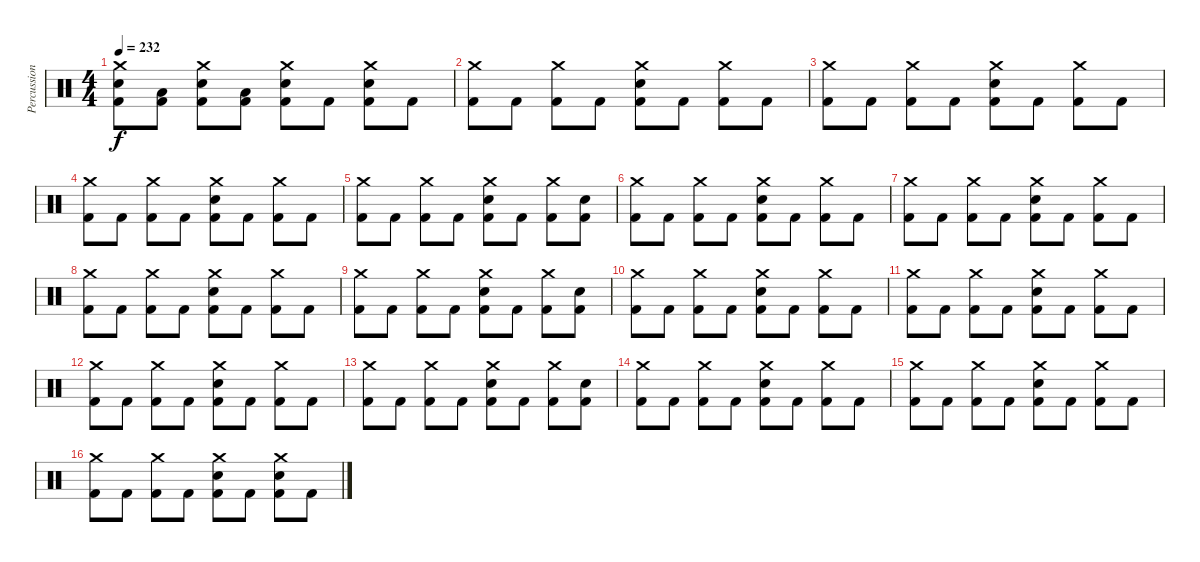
\track ("Percussions" "Percussion") {instrument percussion}
\staff {score}
\articulation defaults
\ts (4 4)
\tempo 232
\clef neutral
\ks c
("Crash medium (hit)" "Electric Snare (hit)" "Kick (hit) 2").8{dy f} ("Low Tom (hit)" "Kick (hit) 2").8 ("Crash medium (hit)" "Electric Snare (hit)" "Kick (hit) 2").8 ("Low Floor Tom (hit)" "Kick (hit) 2").8 ("Crash medium (hit)" "Electric Snare (hit)" "Kick (hit) 2").8 "Kick (hit) 2".8 ("Crash medium (hit)" "Electric Snare (hit)" "Kick (hit) 2").8 "Kick (hit) 2".8 |
("Crash medium (hit)" "Kick (hit) 2").8 "Kick (hit) 2".8 ("Crash medium (hit)" "Kick (hit) 2").8 "Kick (hit) 2".8 ("Crash medium (hit)" "Electric Snare (hit)" "Kick (hit) 2").8 "Kick (hit) 2".8 ("Crash medium (hit)" "Kick (hit) 2").8 "Kick (hit) 2".8 |
("Crash medium (hit)" "Kick (hit) 2").8 "Kick (hit) 2".8 ("Crash medium (hit)" "Kick (hit) 2").8 "Kick (hit) 2".8 ("Crash medium (hit)" "Electric Snare (hit)" "Kick (hit) 2").8 "Kick (hit) 2".8 ("Crash medium (hit)" "Kick (hit) 2").8 "Kick (hit) 2".8 |
("Crash medium (hit)" "Kick (hit) 2").8 "Kick (hit) 2".8 ("Crash medium (hit)" "Kick (hit) 2").8 "Kick (hit) 2".8 ("Crash medium (hit)" "Electric Snare (hit)" "Kick (hit) 2").8 "Kick (hit) 2".8 ("Crash medium (hit)" "Kick (hit) 2").8 "Kick (hit) 2".8 |
("Crash medium (hit)" "Kick (hit) 2").8 "Kick (hit) 2".8 ("Crash medium (hit)" "Kick (hit) 2").8 "Kick (hit) 2".8 ("Crash medium (hit)" "Electric Snare (hit)" "Kick (hit) 2").8 "Kick (hit) 2".8 ("Crash medium (hit)" "Kick (hit) 2").8 ("Electric Snare (hit)" "Kick (hit) 2").8 |
("Crash medium (hit)" "Kick (hit) 2").8 "Kick (hit) 2".8 ("Crash medium (hit)" "Kick (hit) 2").8 "Kick (hit) 2".8 ("Crash medium (hit)" "Electric Snare (hit)" "Kick (hit) 2").8 "Kick (hit) 2".8 ("Crash medium (hit)" "Kick (hit) 2").8 "Kick (hit) 2".8 |
("Crash medium (hit)" "Kick (hit) 2").8 "Kick (hit) 2".8 ("Crash medium (hit)" "Kick (hit) 2").8 "Kick (hit) 2".8 ("Crash medium (hit)" "Electric Snare (hit)" "Kick (hit) 2").8 "Kick (hit) 2".8 ("Crash medium (hit)" "Kick (hit) 2").8 "Kick (hit) 2".8 |
("Crash medium (hit)" "Kick (hit) 2").8 "Kick (hit) 2".8 ("Crash medium (hit)" "Kick (hit) 2").8 "Kick (hit) 2".8 ("Crash medium (hit)" "Electric Snare (hit)" "Kick (hit) 2").8 "Kick (hit) 2".8 ("Crash medium (hit)" "Kick (hit) 2").8 "Kick (hit) 2".8 |
("Crash medium (hit)" "Kick (hit) 2").8 "Kick (hit) 2".8 ("Crash medium (hit)" "Kick (hit) 2").8 "Kick (hit) 2".8 ("Crash medium (hit)" "Electric Snare (hit)" "Kick (hit) 2").8 "Kick (hit) 2".8 ("Crash medium (hit)" "Kick (hit) 2").8 ("Electric Snare (hit)" "Kick (hit) 2").8 |
("Crash medium (hit)" "Kick (hit) 2").8 "Kick (hit) 2".8 ("Crash medium (hit)" "Kick (hit) 2").8 "Kick (hit) 2".8 ("Crash medium (hit)" "Electric Snare (hit)" "Kick (hit) 2").8 "Kick (hit) 2".8 ("Crash medium (hit)" "Kick (hit) 2").8 "Kick (hit) 2".8 |
("Crash medium (hit)" "Kick (hit) 2").8 "Kick (hit) 2".8 ("Crash medium (hit)" "Kick (hit) 2").8 "Kick (hit) 2".8 ("Crash medium (hit)" "Electric Snare (hit)" "Kick (hit) 2").8 "Kick (hit) 2".8 ("Crash medium (hit)" "Kick (hit) 2").8 "Kick (hit) 2".8 |
("Crash medium (hit)" "Kick (hit) 2").8 "Kick (hit) 2".8 ("Crash medium (hit)" "Kick (hit) 2").8 "Kick (hit) 2".8 ("Crash medium (hit)" "Electric Snare (hit)" "Kick (hit) 2").8 "Kick (hit) 2".8 ("Crash medium (hit)" "Kick (hit) 2").8 "Kick (hit) 2".8 |
("Crash medium (hit)" "Kick (hit) 2").8 "Kick (hit) 2".8 ("Crash medium (hit)" "Kick (hit) 2").8 "Kick (hit) 2".8 ("Crash medium (hit)" "Electric Snare (hit)" "Kick (hit) 2").8 "Kick (hit) 2".8 ("Crash medium (hit)" "Kick (hit) 2").8 ("Electric Snare (hit)" "Kick (hit) 2").8 |
("Crash medium (hit)" "Kick (hit) 2").8 "Kick (hit) 2".8 ("Crash medium (hit)" "Kick (hit) 2").8 "Kick (hit) 2".8 ("Crash medium (hit)" "Electric Snare (hit)" "Kick (hit) 2").8 "Kick (hit) 2".8 ("Crash medium (hit)" "Kick (hit) 2").8 "Kick (hit) 2".8 |
("Crash medium (hit)" "Kick (hit) 2").8 "Kick (hit) 2".8 ("Crash medium (hit)" "Kick (hit) 2").8 "Kick (hit) 2".8 ("Crash medium (hit)" "Electric Snare (hit)" "Kick (hit) 2").8 "Kick (hit) 2".8 ("Crash medium (hit)" "Kick (hit) 2").8 "Kick (hit) 2".8 |
("Crash medium (hit)" "Kick (hit) 2").8 "Kick (hit) 2".8 ("Crash medium (hit)" "Kick (hit) 2").8 "Kick (hit) 2".8 ("Crash medium (hit)" "Electric Snare (hit)" "Kick (hit) 2").8 "Kick (hit) 2".8 ("Crash medium (hit)" "Electric Snare (hit)" "Kick (hit) 2").8 "Kick (hit) 2".8
